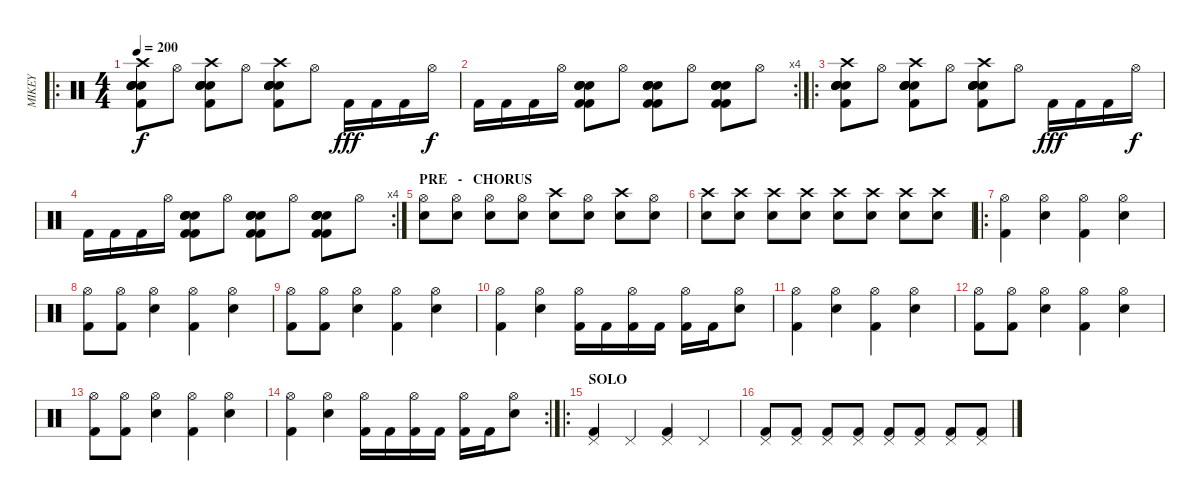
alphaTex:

\track ("MIKEY" "MIKEY") {instrument percussion}
\staff {score}
\articulation defaults
\ro
\ts (4 4)
\tempo 200
\clef neutral
\ks c
("Electric Snare (hit)" "Snare (hit) 2" "Kick (hit) 2" "Crash high (hit)" "Snare (hit) 2" "Electric Snare (hit)").8{dy f} "Hi-Hat (open)".8 ("Electric Snare (hit)" "Snare (hit) 2" "Kick (hit) 2" "Crash high (hit)" "Snare (hit) 2" "Electric Snare (hit)").8 "Hi-Hat (open)".8 ("Electric Snare (hit)" "Snare (hit) 2" "Kick (hit) 2" "Crash high (hit)" "Snare (hit) 2" "Electric Snare (hit)").8 "Hi-Hat (open)".8 "Kick (hit) 2".16{dy fff} "Kick (hit) 2".16 "Kick (hit) 2".16 "Hi-Hat (open)".16{dy f} |
\rc 4 "Kick (hit) 2".16 "Kick (hit) 2".16 "Kick (hit) 2".16 "Hi-Hat (open)".16
("Electric Snare (hit)" "Snare (hit) 2" "Kick (hit) 2" "Kick (hit) 2" "Snare (hit) 2" "Electric Snare (hit)").8 "Hi-Hat (open)".8 ("Electric Snare (hit)" "Snare (hit) 2" "Kick (hit) 2" "Kick (hit) 2" "Snare (hit) 2" "Electric Snare (hit)").8 "Hi-Hat (open)".8 ("Electric Snare (hit)" "Snare (hit) 2" "Kick (hit) 2" "Kick (hit) 2" "Snare (hit) 2" "Electric Snare (hit)").8 "Hi-Hat (open)".8 |
\ro
("Electric Snare (hit)" "Snare (hit) 2" "Kick (hit) 2" "Crash high (hit)" "Snare (hit) 2" "Electric Snare (hit)").8 "Hi-Hat (open)".8 ("Electric Snare (hit)" "Snare (hit) 2" "Kick (hit) 2" "Crash high (hit)" "Snare (hit) 2" "Electric Snare (hit)").8 "Hi-Hat (open)".8 ("Electric Snare (hit)" "Snare (hit) 2" "Kick (hit) 2" "Crash high (hit)" "Snare (hit) 2" "Electric Snare (hit)").8 "Hi-Hat (open)".8 "Kick (hit) 2".16{dy fff} "Kick (hit) 2".16 "Kick (hit) 2".16 "Hi-Hat (open)".16{dy f} |
\rc 4 "Kick (hit) 2".16 "Kick (hit) 2".16 "Kick (hit) 2".16 "Hi-Hat (open)".16
("Electric Snare (hit)" "Snare (hit) 2" "Kick (hit) 2" "Kick (hit) 2" "Snare (hit) 2" "Electric Snare (hit)").8 "Hi-Hat (open)".8 ("Electric Snare (hit)" "Snare (hit) 2" "Kick (hit) 2" "Kick (hit) 2" "Snare (hit) 2" "Electric Snare (hit)").8 "Hi-Hat (open)".8 ("Electric Snare (hit)" "Snare (hit) 2" "Kick (hit) 2" "Kick (hit) 2" "Snare (hit) 2" "Electric Snare (hit)").8 "Hi-Hat (open)".8 |
\section ("" "PRE   -   CHORUS")
("Hi-Hat (open)" "Electric Snare (hit)").8 ("Hi-Hat (open)" "Electric Snare (hit)").8 ("Hi-Hat (open)" "Electric Snare (hit)").8 ("Hi-Hat (open)" "Electric Snare (hit)").8 ("Crash high (hit)" "Electric Snare (hit)").8 ("Hi-Hat (open)" "Electric Snare (hit)").8 ("Crash high (hit)" "Electric Snare (hit)").8 ("Hi-Hat (open)" "Electric Snare (hit)").8 |
("Crash high (hit)" "Electric Snare (hit)").8 ("Crash high (hit)" "Electric Snare (hit)").8 ("Crash high (hit)" "Electric Snare (hit)").8 ("Crash high (hit)" "Electric Snare (hit)").8 ("Crash high (hit)" "Electric Snare (hit)").8 ("Crash high (hit)" "Electric Snare (hit)").8 ("Crash high (hit)" "Electric Snare (hit)").8 ("Crash high (hit)" "Electric Snare (hit)").8 |
\ro
("Hi-Hat (open)" "Kick (hit) 2").4 ("Hi-Hat (open)" "Snare (hit) 2").4 ("Hi-Hat (open)" "Kick (hit) 2").4 ("Hi-Hat (open)" "Snare (hit) 2").4 |
("Hi-Hat (open)" "Kick (hit) 2").8 ("Hi-Hat (open)" "Kick (hit) 2").8 ("Hi-Hat (open)" "Snare (hit) 2").4 ("Hi-Hat (open)" "Kick (hit) 2").4 ("Hi-Hat (open)" "Snare (hit) 2").4 |
("Hi-Hat (open)" "Kick (hit) 2").8 ("Hi-Hat (open)" "Kick (hit) 2").8 ("Hi-Hat (open)" "Snare (hit) 2").4 ("Hi-Hat (open)" "Kick (hit) 2").4 ("Hi-Hat (open)" "Snare (hit) 2").4 |
("Hi-Hat (open)" "Kick (hit) 2").4 ("Hi-Hat (open)" "Snare (hit) 2").4 ("Hi-Hat (open)" "Kick (hit) 2").16 "Kick (hit) 2".16 ("Hi-Hat (open)" "Kick (hit) 2").16 "Kick (hit) 2".16 ("Hi-Hat (open)" "Kick (hit) 2").16 "Kick (hit) 2".16 ("Hi-Hat (open)" "Snare (hit) 2").8 |
("Hi-Hat (open)" "Kick (hit) 2").4 ("Hi-Hat (open)" "Snare (hit) 2").4 ("Hi-Hat (open)" "Kick (hit) 2").4 ("Hi-Hat (open)" "Snare (hit) 2").4 |
("Hi-Hat (open)" "Kick (hit) 2").8 ("Hi-Hat (open)" "Kick (hit) 2").8 ("Hi-Hat (open)" "Snare (hit) 2").4 ("Hi-Hat (open)" "Kick (hit) 2").4 ("Hi-Hat (open)" "Snare (hit) 2").4 |
("Hi-Hat (open)" "Kick (hit) 2").8 ("Hi-Hat (open)" "Kick (hit) 2").8 ("Hi-Hat (open)" "Snare (hit) 2").4 ("Hi-Hat (open)" "Kick (hit) 2").4 ("Hi-Hat (open)" "Snare (hit) 2").4 |
\rc 2
("Hi-Hat (open)" "Kick (hit) 2").4 ("Hi-Hat (open)" "Snare (hit) 2").4 ("Hi-Hat (open)" "Kick (hit) 2").16 "Kick (hit) 2".16 ("Hi-Hat (open)" "Kick (hit) 2").16 "Kick (hit) 2".16 ("Hi-Hat (open)" "Kick (hit) 2").16 "Kick (hit) 2".16 ("Hi-Hat (open)" "Snare (hit) 2").8 |
\ro
\section ("" "SOLO")
("Kick (hit) 2" "Pedal Hi-Hat (hit)").4 "Pedal Hi-Hat (hit)".4 ("Kick (hit) 2" "Pedal Hi-Hat (hit)").4 "Pedal Hi-Hat (hit)".4 |
("Kick (hit) 2" "Pedal Hi-Hat (hit)").8 ("Kick (hit) 2" "Pedal Hi-Hat (hit)").8 ("Kick (hit) 2" "Pedal Hi-Hat (hit)").8 ("Kick (hit) 2" "Pedal Hi-Hat (hit)").8 ("Kick (hit) 2" "Pedal Hi-Hat (hit)").8 ("Kick (hit) 2" "Pedal Hi-Hat (hit)").8 ("Kick (hit) 2" "Pedal Hi-Hat (hit)").8 ("Kick (hit) 2" "Pedal Hi-Hat (hit)").8
